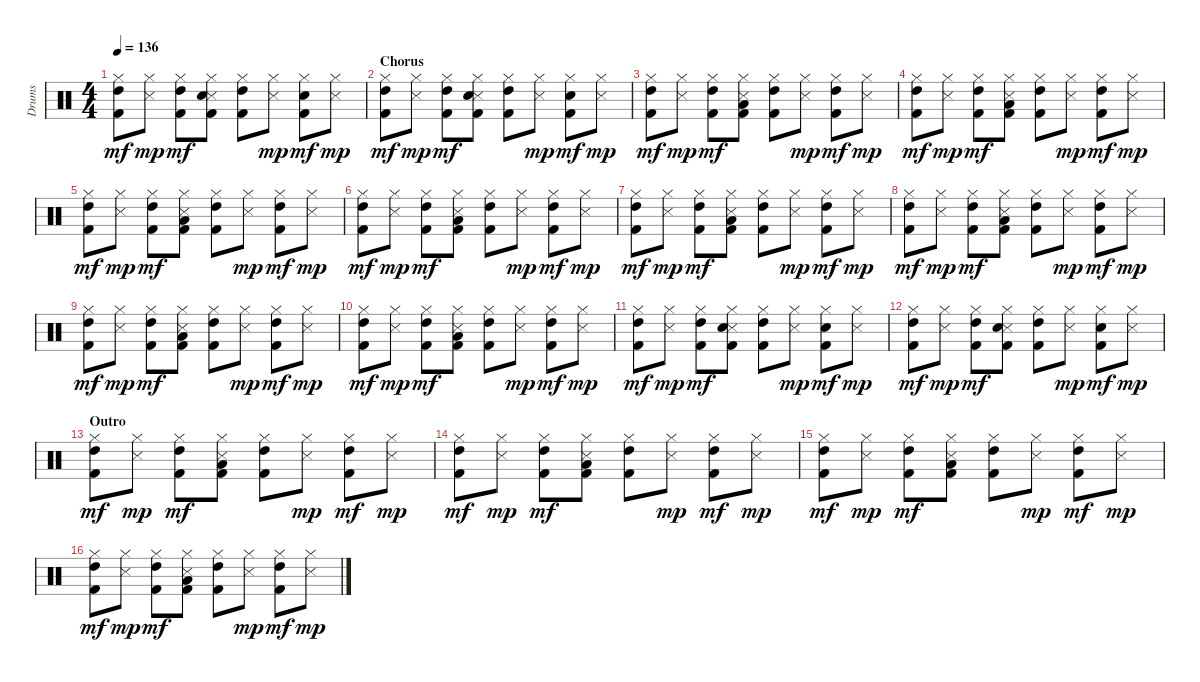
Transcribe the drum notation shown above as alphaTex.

\track ("Drums" "Drums") {instrument percussion}
\staff {score}
\articulation defaults
\ts (4 4)
\tempo 136
\clef neutral
\ks c
("Hi-Hat (closed)" "High Tom (hit)" "Kick (hit) 2").8{dy mf} ("Hi-Hat (closed)" "Metronome (hit)").8{dy mp} ("Hi-Hat (closed)" "High Tom (hit)" "Kick (hit) 2").8{dy mf} ("Hi-Hat (closed)" "Metronome (hit)" "Electric Snare (hit)" "Kick (hit) 2").8 ("Hi-Hat (closed)" "High Tom (hit)" "Kick (hit) 2").8 ("Hi-Hat (closed)" "Metronome (hit)").8{dy mp} ("Hi-Hat (closed)" "Electric Snare (hit)" "Kick (hit) 2").8{dy mf} ("Hi-Hat (closed)" "Metronome (hit)").8{dy mp} |
\section ("" "Chorus")
("Hi-Hat (closed)" "High Tom (hit)" "Kick (hit) 2").8{dy mf} ("Hi-Hat (closed)" "Metronome (hit)").8{dy mp} ("Hi-Hat (closed)" "High Tom (hit)" "Kick (hit) 2").8{dy mf} ("Hi-Hat (closed)" "Metronome (hit)" "Electric Snare (hit)" "Kick (hit) 2").8 ("Hi-Hat (closed)" "High Tom (hit)" "Kick (hit) 2").8 ("Hi-Hat (closed)" "Metronome (hit)").8{dy mp} ("Hi-Hat (closed)" "Electric Snare (hit)" "Kick (hit) 2").8{dy mf} ("Hi-Hat (closed)" "Metronome (hit)").8{dy mp} |
("Hi-Hat (closed)" "High Tom (hit)" "Kick (hit) 2").8{dy mf} ("Hi-Hat (closed)" "Metronome (hit)").8{dy mp} ("Hi-Hat (closed)" "High Tom (hit)" "Kick (hit) 2").8{dy mf} ("Hi-Hat (closed)" "Metronome (hit)" "Low Floor Tom (hit)" "Kick (hit) 2").8 ("Hi-Hat (closed)" "High Tom (hit)" "Kick (hit) 2").8 ("Hi-Hat (closed)" "Metronome (hit)").8{dy mp} ("Hi-Hat (closed)" "High Tom (hit)" "Kick (hit) 2").8{dy mf} ("Hi-Hat (closed)" "Metronome (hit)").8{dy mp} |
("Hi-Hat (closed)" "High Tom (hit)" "Kick (hit) 2").8{dy mf} ("Hi-Hat (closed)" "Metronome (hit)").8{dy mp} ("Hi-Hat (closed)" "High Tom (hit)" "Kick (hit) 2").8{dy mf} ("Hi-Hat (closed)" "Metronome (hit)" "Low Floor Tom (hit)" "Kick (hit) 2").8 ("Hi-Hat (closed)" "High Tom (hit)" "Kick (hit) 2").8 ("Hi-Hat (closed)" "Metronome (hit)").8{dy mp} ("Hi-Hat (closed)" "High Tom (hit)" "Kick (hit) 2").8{dy mf} ("Hi-Hat (closed)" "Metronome (hit)").8{dy mp} |
("Hi-Hat (closed)" "High Tom (hit)" "Kick (hit) 2").8{dy mf} ("Hi-Hat (closed)" "Metronome (hit)").8{dy mp} ("Hi-Hat (closed)" "High Tom (hit)" "Kick (hit) 2").8{dy mf} ("Hi-Hat (closed)" "Metronome (hit)" "Low Floor Tom (hit)" "Kick (hit) 2").8 ("Hi-Hat (closed)" "High Tom (hit)" "Kick (hit) 2").8 ("Hi-Hat (closed)" "Metronome (hit)").8{dy mp} ("Hi-Hat (closed)" "High Tom (hit)" "Kick (hit) 2").8{dy mf} ("Hi-Hat (closed)" "Metronome (hit)").8{dy mp} |
("Hi-Hat (closed)" "High Tom (hit)" "Kick (hit) 2").8{dy mf} ("Hi-Hat (closed)" "Metronome (hit)").8{dy mp} ("Hi-Hat (closed)" "High Tom (hit)" "Kick (hit) 2").8{dy mf} ("Hi-Hat (closed)" "Metronome (hit)" "Low Floor Tom (hit)" "Kick (hit) 2").8 ("Hi-Hat (closed)" "High Tom (hit)" "Kick (hit) 2").8 ("Hi-Hat (closed)" "Metronome (hit)").8{dy mp} ("Hi-Hat (closed)" "High Tom (hit)" "Kick (hit) 2").8{dy mf} ("Hi-Hat (closed)" "Metronome (hit)").8{dy mp} |
("Hi-Hat (closed)" "High Tom (hit)" "Kick (hit) 2").8{dy mf} ("Hi-Hat (closed)" "Metronome (hit)").8{dy mp} ("Hi-Hat (closed)" "High Tom (hit)" "Kick (hit) 2").8{dy mf} ("Hi-Hat (closed)" "Metronome (hit)" "Low Floor Tom (hit)" "Kick (hit) 2").8 ("Hi-Hat (closed)" "High Tom (hit)" "Kick (hit) 2").8 ("Hi-Hat (closed)" "Metronome (hit)").8{dy mp} ("Hi-Hat (closed)" "High Tom (hit)" "Kick (hit) 2").8{dy mf} ("Hi-Hat (closed)" "Metronome (hit)").8{dy mp} |
("Hi-Hat (closed)" "High Tom (hit)" "Kick (hit) 2").8{dy mf} ("Hi-Hat (closed)" "Metronome (hit)").8{dy mp} ("Hi-Hat (closed)" "High Tom (hit)" "Kick (hit) 2").8{dy mf} ("Hi-Hat (closed)" "Metronome (hit)" "Low Floor Tom (hit)" "Kick (hit) 2").8 ("Hi-Hat (closed)" "High Tom (hit)" "Kick (hit) 2").8 ("Hi-Hat (closed)" "Metronome (hit)").8{dy mp} ("Hi-Hat (closed)" "High Tom (hit)" "Kick (hit) 2").8{dy mf} ("Hi-Hat (closed)" "Metronome (hit)").8{dy mp} |
("Hi-Hat (closed)" "High Tom (hit)" "Kick (hit) 2").8{dy mf} ("Hi-Hat (closed)" "Metronome (hit)").8{dy mp} ("Hi-Hat (closed)" "High Tom (hit)" "Kick (hit) 2").8{dy mf} ("Hi-Hat (closed)" "Metronome (hit)" "Low Floor Tom (hit)" "Kick (hit) 2").8 ("Hi-Hat (closed)" "High Tom (hit)" "Kick (hit) 2").8 ("Hi-Hat (closed)" "Metronome (hit)").8{dy mp} ("Hi-Hat (closed)" "High Tom (hit)" "Kick (hit) 2").8{dy mf} ("Hi-Hat (closed)" "Metronome (hit)").8{dy mp} |
("Hi-Hat (closed)" "High Tom (hit)" "Kick (hit) 2").8{dy mf} ("Hi-Hat (closed)" "Metronome (hit)").8{dy mp} ("Hi-Hat (closed)" "High Tom (hit)" "Kick (hit) 2").8{dy mf} ("Hi-Hat (closed)" "Metronome (hit)" "Low Floor Tom (hit)" "Kick (hit) 2").8 ("Hi-Hat (closed)" "High Tom (hit)" "Kick (hit) 2").8 ("Hi-Hat (closed)" "Metronome (hit)").8{dy mp} ("Hi-Hat (closed)" "High Tom (hit)" "Kick (hit) 2").8{dy mf} ("Hi-Hat (closed)" "Metronome (hit)").8{dy mp} |
("Hi-Hat (closed)" "High Tom (hit)" "Kick (hit) 2").8{dy mf} ("Hi-Hat (closed)" "Metronome (hit)").8{dy mp} ("Hi-Hat (closed)" "High Tom (hit)" "Kick (hit) 2").8{dy mf} ("Hi-Hat (closed)" "Metronome (hit)" "Electric Snare (hit)" "Kick (hit) 2").8 ("Hi-Hat (closed)" "High Tom (hit)" "Kick (hit) 2").8 ("Hi-Hat (closed)" "Metronome (hit)").8{dy mp} ("Hi-Hat (closed)" "Electric Snare (hit)" "Kick (hit) 2").8{dy mf} ("Hi-Hat (closed)" "Metronome (hit)").8{dy mp} |
("Hi-Hat (closed)" "High Tom (hit)" "Kick (hit) 2").8{dy mf} ("Hi-Hat (closed)" "Metronome (hit)").8{dy mp} ("Hi-Hat (closed)" "High Tom (hit)" "Kick (hit) 2").8{dy mf} ("Hi-Hat (closed)" "Metronome (hit)" "Electric Snare (hit)" "Kick (hit) 2").8 ("Hi-Hat (closed)" "High Tom (hit)" "Kick (hit) 2").8 ("Hi-Hat (closed)" "Metronome (hit)").8{dy mp} ("Hi-Hat (closed)" "Electric Snare (hit)" "Kick (hit) 2").8{dy mf} ("Hi-Hat (closed)" "Metronome (hit)").8{dy mp} |
\section ("" "Outro")
("Hi-Hat (closed)" "High Tom (hit)" "Kick (hit) 2").8{dy mf} ("Hi-Hat (closed)" "Metronome (hit)").8{dy mp} ("Hi-Hat (closed)" "High Tom (hit)" "Kick (hit) 2").8{dy mf} ("Hi-Hat (closed)" "Metronome (hit)" "Low Floor Tom (hit)" "Kick (hit) 2").8 ("Hi-Hat (closed)" "High Tom (hit)" "Kick (hit) 2").8{volume 12} ("Hi-Hat (closed)" "Metronome (hit)").8{dy mp} ("Hi-Hat (closed)" "High Tom (hit)" "Kick (hit) 2").8{dy mf} ("Hi-Hat (closed)" "Metronome (hit)").8{dy mp} |
("Hi-Hat (closed)" "High Tom (hit)" "Kick (hit) 2").8{dy mf} ("Hi-Hat (closed)" "Metronome (hit)").8{dy mp} ("Hi-Hat (closed)" "High Tom (hit)" "Kick (hit) 2").8{dy mf} ("Hi-Hat (closed)" "Metronome (hit)" "Low Floor Tom (hit)" "Kick (hit) 2").8 ("Hi-Hat (closed)" "High Tom (hit)" "Kick (hit) 2").8{volume 10} ("Hi-Hat (closed)" "Metronome (hit)").8{dy mp} ("Hi-Hat (closed)" "High Tom (hit)" "Kick (hit) 2").8{dy mf} ("Hi-Hat (closed)" "Metronome (hit)").8{dy mp} |
("Hi-Hat (closed)" "High Tom (hit)" "Kick (hit) 2").8{dy mf} ("Hi-Hat (closed)" "Metronome (hit)").8{dy mp} ("Hi-Hat (closed)" "High Tom (hit)" "Kick (hit) 2").8{dy mf} ("Hi-Hat (closed)" "Metronome (hit)" "Low Floor Tom (hit)" "Kick (hit) 2").8 ("Hi-Hat (closed)" "High Tom (hit)" "Kick (hit) 2").8{volume 8} ("Hi-Hat (closed)" "Metronome (hit)").8{dy mp} ("Hi-Hat (closed)" "High Tom (hit)" "Kick (hit) 2").8{dy mf} ("Hi-Hat (closed)" "Metronome (hit)").8{dy mp} |
("Hi-Hat (closed)" "High Tom (hit)" "Kick (hit) 2").8{dy mf} ("Hi-Hat (closed)" "Metronome (hit)").8{dy mp} ("Hi-Hat (closed)" "High Tom (hit)" "Kick (hit) 2").8{dy mf} ("Hi-Hat (closed)" "Metronome (hit)" "Low Floor Tom (hit)" "Kick (hit) 2").8 ("Hi-Hat (closed)" "High Tom (hit)" "Kick (hit) 2").8{volume 6} ("Hi-Hat (closed)" "Metronome (hit)").8{dy mp} ("Hi-Hat (closed)" "High Tom (hit)" "Kick (hit) 2").8{dy mf} ("Hi-Hat (closed)" "Metronome (hit)").8{dy mp}
